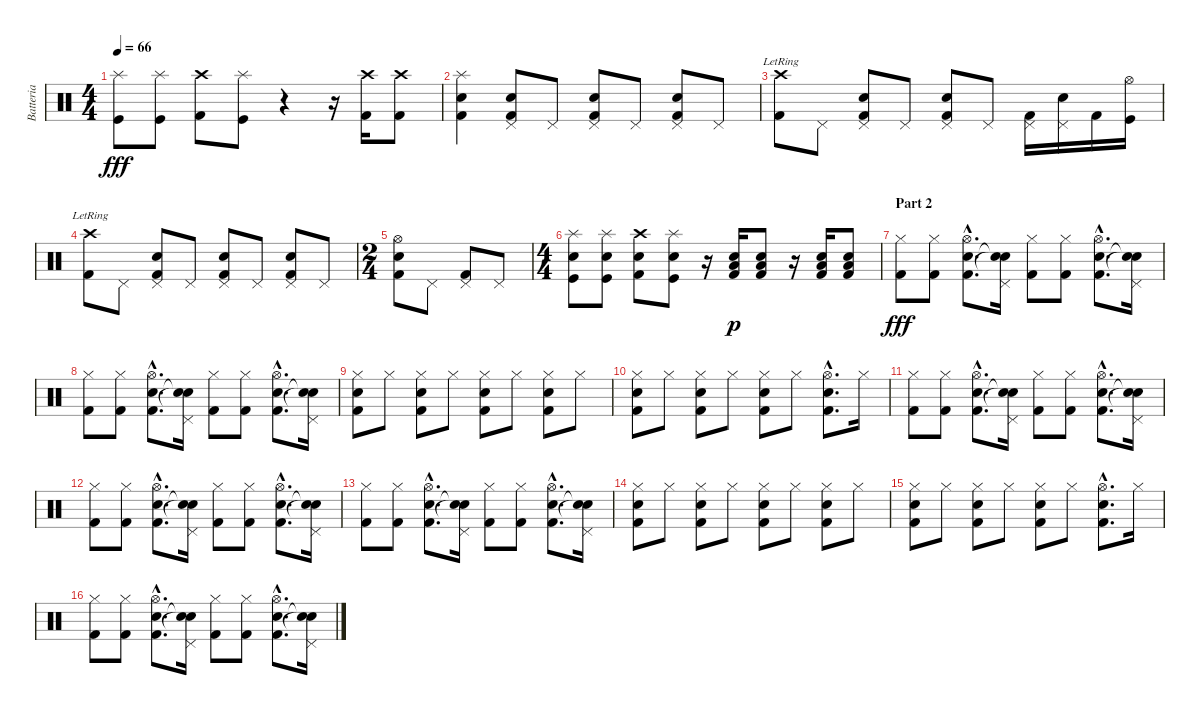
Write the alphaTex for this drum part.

\track ("Batteria" "Batteria") {instrument percussion}
\staff {score}
\articulation defaults
\ts (4 4)
\tempo 66
\clef neutral
\ks c
("Splash (hit)" "Kick (hit)").8{dy fff} ("Splash (hit)" "Kick (hit)").8 ("Crash high (hit)" "Kick (hit) 2").8 ("Splash (hit)" "Kick (hit)").8 r.4 r.16 ("Crash high (hit)" "Kick (hit) 2").16 ("Crash high (hit)" "Kick (hit) 2").8 |
("Splash (hit)" "Snare (hit) 2" "Kick (hit) 2").4 ("Pedal Hi-Hat (hit)" "Snare (hit) 2" "Kick (hit) 2").8 "Pedal Hi-Hat (hit)".8 ("Pedal Hi-Hat (hit)" "Snare (hit) 2" "Kick (hit) 2").8 "Pedal Hi-Hat (hit)".8 ("Pedal Hi-Hat (hit)" "Snare (hit) 2" "Kick (hit) 2").8 "Pedal Hi-Hat (hit)".8 |
("Crash high (hit)"{lr} "Kick (hit) 2").8 "Pedal Hi-Hat (hit)".8 ("Pedal Hi-Hat (hit)" "Snare (hit) 2" "Kick (hit) 2").8 "Pedal Hi-Hat (hit)".8 ("Pedal Hi-Hat (hit)" "Snare (hit) 2" "Kick (hit) 2").8 "Pedal Hi-Hat (hit)".8 ("Pedal Hi-Hat (hit)" "Kick (hit) 2").16 ("Pedal Hi-Hat (hit)" "Snare (hit) 2").16 "Kick (hit) 2".16 ("Hi-Hat (open)" "Kick (hit)").16 |
("Crash high (hit)"{lr} "Kick (hit) 2").8 "Pedal Hi-Hat (hit)".8 ("Pedal Hi-Hat (hit)" "Snare (hit) 2" "Kick (hit) 2").8 "Pedal Hi-Hat (hit)".8 ("Pedal Hi-Hat (hit)" "Snare (hit) 2" "Kick (hit) 2").8 "Pedal Hi-Hat (hit)".8 ("Pedal Hi-Hat (hit)" "Snare (hit) 2" "Kick (hit) 2").8 "Pedal Hi-Hat (hit)".8 |
\ts (2 4)
("Hi-Hat (open)" "Snare (hit) 2" "Kick (hit) 2").8 "Pedal Hi-Hat (hit)".8 ("Pedal Hi-Hat (hit)" "Kick (hit) 2").8 "Pedal Hi-Hat (hit)".8 |
\ts (4 4)
("Splash (hit)" "Snare (hit) 2" "Kick (hit)").8 ("Splash (hit)" "Snare (hit) 2" "Kick (hit)").8 ("Crash high (hit)" "Snare (hit) 2" "Kick (hit) 2").8 ("Splash (hit)" "Snare (hit) 2" "Kick (hit)").8 r.16 ("Low Floor Tom (hit)" "Snare (hit) 2" "Kick (hit) 2").16{dy p} ("Low Floor Tom (hit)" "Snare (hit) 2" "Kick (hit) 2").8 r.16 ("Low Floor Tom (hit)" "Snare (hit) 2" "Kick (hit) 2").16 ("Low Floor Tom (hit)" "Snare (hit) 2" "Kick (hit) 2").8 |
\section ("" "Part 2")
("Hi-Hat (closed)" "Kick (hit) 2").8{dy fff} ("Hi-Hat (closed)" "Kick (hit) 2").8 ("Hi-Hat (open)"{hac} "Snare (hit) 2"{hac} "Kick (hit) 2"{hac}).8{d} ("Pedal Hi-Hat (hit)" "Snare (hit)"{t} "Snare (hit)"{t}).16 ("Hi-Hat (closed)" "Kick (hit) 2").8 ("Hi-Hat (closed)" "Kick (hit) 2").8 ("Hi-Hat (open)"{hac} "Snare (hit) 2"{hac} "Kick (hit) 2"{hac}).8{d} ("Pedal Hi-Hat (hit)" "Snare (hit)"{t} "Snare (hit)"{t}).16 |
("Hi-Hat (closed)" "Kick (hit) 2").8 ("Hi-Hat (closed)" "Kick (hit) 2").8 ("Hi-Hat (open)"{hac} "Snare (hit) 2"{hac} "Kick (hit) 2"{hac}).8{d} ("Pedal Hi-Hat (hit)" "Snare (hit)"{t} "Snare (hit)"{t}).16 ("Hi-Hat (closed)" "Kick (hit) 2").8 ("Hi-Hat (closed)" "Kick (hit) 2").8 ("Hi-Hat (open)"{hac} "Snare (hit) 2"{hac} "Kick (hit) 2"{hac}).8{d} ("Pedal Hi-Hat (hit)" "Snare (hit)"{t} "Snare (hit)"{t}).16 |
("Hi-Hat (closed)" "Snare (hit) 2" "Kick (hit) 2").8 "Hi-Hat (closed)".8 ("Hi-Hat (closed)" "Snare (hit) 2" "Kick (hit) 2").8 "Hi-Hat (closed)".8 ("Hi-Hat (closed)" "Snare (hit) 2" "Kick (hit) 2").8 "Hi-Hat (closed)".8 ("Hi-Hat (closed)" "Snare (hit) 2" "Kick (hit) 2").8 "Hi-Hat (closed)".8 |
("Hi-Hat (closed)" "Snare (hit) 2" "Kick (hit) 2").8 "Hi-Hat (closed)".8 ("Hi-Hat (closed)" "Snare (hit) 2" "Kick (hit) 2").8 "Hi-Hat (closed)".8 ("Hi-Hat (closed)" "Snare (hit) 2" "Kick (hit) 2").8 "Hi-Hat (closed)".8 ("Hi-Hat (open)"{hac} "Snare (hit) 2"{hac} "Kick (hit) 2"{hac}).8{d} "Hi-Hat (closed)".16 |
("Hi-Hat (closed)" "Kick (hit) 2").8 ("Hi-Hat (closed)" "Kick (hit) 2").8 ("Hi-Hat (open)"{hac} "Snare (hit) 2"{hac} "Kick (hit) 2"{hac}).8{d} ("Pedal Hi-Hat (hit)" "Snare (hit)"{t} "Snare (hit)"{t}).16 ("Hi-Hat (closed)" "Kick (hit) 2").8 ("Hi-Hat (closed)" "Kick (hit) 2").8 ("Hi-Hat (open)"{hac} "Snare (hit) 2"{hac} "Kick (hit) 2"{hac}).8{d} ("Pedal Hi-Hat (hit)" "Snare (hit)"{t} "Snare (hit)"{t}).16 |
("Hi-Hat (closed)" "Kick (hit) 2").8 ("Hi-Hat (closed)" "Kick (hit) 2").8 ("Hi-Hat (open)"{hac} "Snare (hit) 2"{hac} "Kick (hit) 2"{hac}).8{d} ("Pedal Hi-Hat (hit)" "Snare (hit)"{t} "Snare (hit)"{t}).16 ("Hi-Hat (closed)" "Kick (hit) 2").8 ("Hi-Hat (closed)" "Kick (hit) 2").8 ("Hi-Hat (open)"{hac} "Snare (hit) 2"{hac} "Kick (hit) 2"{hac}).8{d} ("Pedal Hi-Hat (hit)" "Snare (hit)"{t} "Snare (hit)"{t}).16 |
("Hi-Hat (closed)" "Kick (hit) 2").8 ("Hi-Hat (closed)" "Kick (hit) 2").8 ("Hi-Hat (open)"{hac} "Snare (hit) 2"{hac} "Kick (hit) 2"{hac}).8{d} ("Pedal Hi-Hat (hit)" "Snare (hit)"{t} "Snare (hit)"{t}).16 ("Hi-Hat (closed)" "Kick (hit) 2").8 ("Hi-Hat (closed)" "Kick (hit) 2").8 ("Hi-Hat (open)"{hac} "Snare (hit) 2"{hac} "Kick (hit) 2"{hac}).8{d} ("Pedal Hi-Hat (hit)" "Snare (hit)"{t} "Snare (hit)"{t}).16 |
("Hi-Hat (closed)" "Snare (hit) 2" "Kick (hit) 2").8 "Hi-Hat (closed)".8 ("Hi-Hat (closed)" "Snare (hit) 2" "Kick (hit) 2").8 "Hi-Hat (closed)".8 ("Hi-Hat (closed)" "Snare (hit) 2" "Kick (hit) 2").8 "Hi-Hat (closed)".8 ("Hi-Hat (closed)" "Snare (hit) 2" "Kick (hit) 2").8 "Hi-Hat (closed)".8 |
("Hi-Hat (closed)" "Snare (hit) 2" "Kick (hit) 2").8 "Hi-Hat (closed)".8 ("Hi-Hat (closed)" "Snare (hit) 2" "Kick (hit) 2").8 "Hi-Hat (closed)".8 ("Hi-Hat (closed)" "Snare (hit) 2" "Kick (hit) 2").8 "Hi-Hat (closed)".8 ("Hi-Hat (open)"{hac} "Snare (hit) 2"{hac} "Kick (hit) 2"{hac}).8{d} "Hi-Hat (closed)".16 |
("Hi-Hat (closed)" "Kick (hit) 2").8 ("Hi-Hat (closed)" "Kick (hit) 2").8 ("Hi-Hat (open)"{hac} "Snare (hit) 2"{hac} "Kick (hit) 2"{hac}).8{d} ("Pedal Hi-Hat (hit)" "Snare (hit)"{t} "Snare (hit)"{t}).16 ("Hi-Hat (closed)" "Kick (hit) 2").8 ("Hi-Hat (closed)" "Kick (hit) 2").8 ("Hi-Hat (open)"{hac} "Snare (hit) 2"{hac} "Kick (hit) 2"{hac}).8{d} ("Pedal Hi-Hat (hit)" "Snare (hit)"{t} "Snare (hit)"{t}).16
